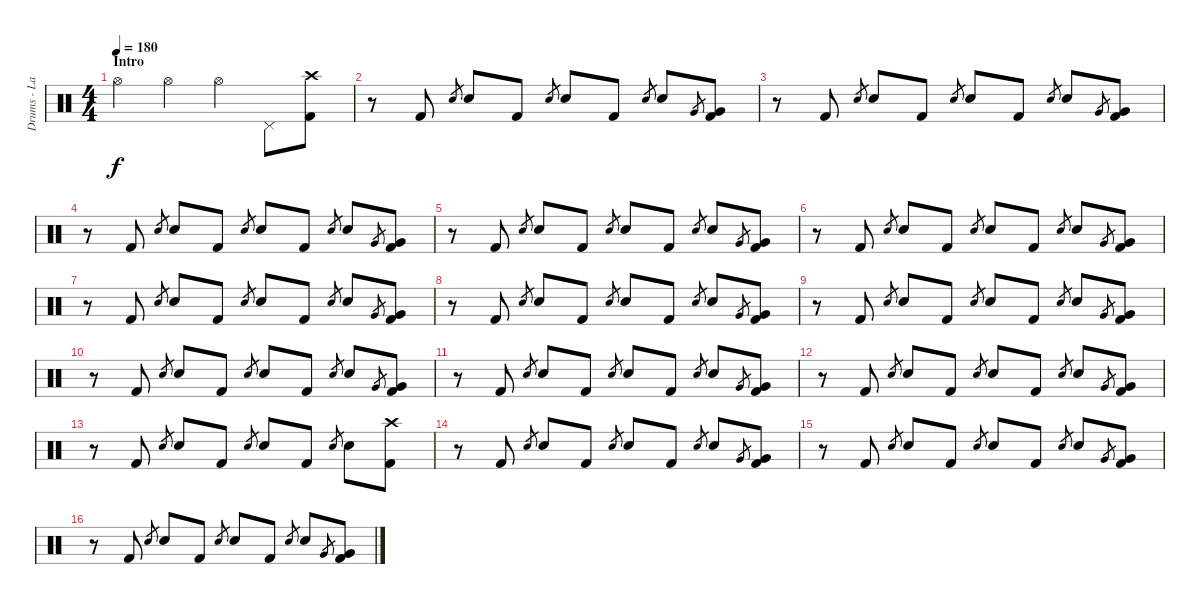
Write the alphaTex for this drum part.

\track ("Drums - Lars" "Drums - La") {instrument percussion}
\staff {score}
\articulation defaults
\ts (4 4)
\section ("" "Intro")
\tempo 180
\clef neutral
\ks c "Hi-Hat (open)".4{dy f} "Hi-Hat (open)".4 "Hi-Hat (open)".4 "Pedal Hi-Hat (hit)".8
("Crash high (hit)" "Kick (hit) 2").8 |
r.8 "Kick (hit) 2".8 "Snare (hit) 2".8{gr} "Snare (hit) 2".8 "Kick (hit) 2".8 "Snare (hit) 2".8{gr} "Snare (hit) 2".8 "Kick (hit) 2".8 "Snare (hit) 2".8{gr} "Snare (hit) 2".8 "Very Low Tom (hit)".8{gr} ("Very Low Tom (hit)" "Kick (hit) 2").8 |
r.8 "Kick (hit) 2".8 "Snare (hit) 2".8{gr} "Snare (hit) 2".8 "Kick (hit) 2".8 "Snare (hit) 2".8{gr} "Snare (hit) 2".8 "Kick (hit) 2".8 "Snare (hit) 2".8{gr} "Snare (hit) 2".8 "Very Low Tom (hit)".8{gr} ("Very Low Tom (hit)" "Kick (hit) 2").8 |
r.8 "Kick (hit) 2".8 "Snare (hit) 2".8{gr} "Snare (hit) 2".8 "Kick (hit) 2".8 "Snare (hit) 2".8{gr} "Snare (hit) 2".8 "Kick (hit) 2".8 "Snare (hit) 2".8{gr} "Snare (hit) 2".8 "Very Low Tom (hit)".8{gr} ("Very Low Tom (hit)" "Kick (hit) 2").8 |
r.8 "Kick (hit) 2".8 "Snare (hit) 2".8{gr} "Snare (hit) 2".8 "Kick (hit) 2".8 "Snare (hit) 2".8{gr} "Snare (hit) 2".8 "Kick (hit) 2".8 "Snare (hit) 2".8{gr} "Snare (hit) 2".8 "Very Low Tom (hit)".8{gr} ("Very Low Tom (hit)" "Kick (hit) 2").8 |
r.8 "Kick (hit) 2".8 "Snare (hit) 2".8{gr} "Snare (hit) 2".8 "Kick (hit) 2".8 "Snare (hit) 2".8{gr} "Snare (hit) 2".8 "Kick (hit) 2".8 "Snare (hit) 2".8{gr} "Snare (hit) 2".8 "Very Low Tom (hit)".8{gr} ("Very Low Tom (hit)" "Kick (hit) 2").8 |
r.8 "Kick (hit) 2".8 "Snare (hit) 2".8{gr} "Snare (hit) 2".8 "Kick (hit) 2".8 "Snare (hit) 2".8{gr} "Snare (hit) 2".8 "Kick (hit) 2".8 "Snare (hit) 2".8{gr} "Snare (hit) 2".8 "Very Low Tom (hit)".8{gr} ("Very Low Tom (hit)" "Kick (hit) 2").8 |
r.8 "Kick (hit) 2".8 "Snare (hit) 2".8{gr} "Snare (hit) 2".8 "Kick (hit) 2".8 "Snare (hit) 2".8{gr} "Snare (hit) 2".8 "Kick (hit) 2".8 "Snare (hit) 2".8{gr} "Snare (hit) 2".8 "Very Low Tom (hit)".8{gr} ("Very Low Tom (hit)" "Kick (hit) 2").8 |
r.8 "Kick (hit) 2".8 "Snare (hit) 2".8{gr} "Snare (hit) 2".8 "Kick (hit) 2".8 "Snare (hit) 2".8{gr} "Snare (hit) 2".8 "Kick (hit) 2".8 "Snare (hit) 2".8{gr} "Snare (hit) 2".8 "Very Low Tom (hit)".8{gr} ("Very Low Tom (hit)" "Kick (hit) 2").8 |
r.8 "Kick (hit) 2".8 "Snare (hit) 2".8{gr} "Snare (hit) 2".8 "Kick (hit) 2".8 "Snare (hit) 2".8{gr} "Snare (hit) 2".8 "Kick (hit) 2".8 "Snare (hit) 2".8{gr} "Snare (hit) 2".8 "Very Low Tom (hit)".8{gr} ("Very Low Tom (hit)" "Kick (hit) 2").8 |
r.8 "Kick (hit) 2".8 "Snare (hit) 2".8{gr} "Snare (hit) 2".8 "Kick (hit) 2".8 "Snare (hit) 2".8{gr} "Snare (hit) 2".8 "Kick (hit) 2".8 "Snare (hit) 2".8{gr} "Snare (hit) 2".8 "Very Low Tom (hit)".8{gr} ("Very Low Tom (hit)" "Kick (hit) 2").8 |
r.8 "Kick (hit) 2".8 "Snare (hit) 2".8{gr} "Snare (hit) 2".8 "Kick (hit) 2".8 "Snare (hit) 2".8{gr} "Snare (hit) 2".8 "Kick (hit) 2".8 "Snare (hit) 2".8{gr} "Snare (hit) 2".8 "Very Low Tom (hit)".8{gr} ("Very Low Tom (hit)" "Kick (hit) 2").8 |
r.8 "Kick (hit) 2".8 "Snare (hit) 2".8{gr} "Snare (hit) 2".8 "Kick (hit) 2".8 "Snare (hit) 2".8{gr} "Snare (hit) 2".8 "Kick (hit) 2".8 "Snare (hit) 2".8{gr} "Snare (hit) 2".8 ("Crash high (hit)" "Kick (hit) 2").8 |
r.8 "Kick (hit) 2".8 "Snare (hit) 2".8{gr} "Snare (hit) 2".8 "Kick (hit) 2".8 "Snare (hit) 2".8{gr} "Snare (hit) 2".8 "Kick (hit) 2".8 "Snare (hit) 2".8{gr} "Snare (hit) 2".8 "Very Low Tom (hit)".8{gr} ("Very Low Tom (hit)" "Kick (hit) 2").8 |
r.8 "Kick (hit) 2".8 "Snare (hit) 2".8{gr} "Snare (hit) 2".8 "Kick (hit) 2".8 "Snare (hit) 2".8{gr} "Snare (hit) 2".8 "Kick (hit) 2".8 "Snare (hit) 2".8{gr} "Snare (hit) 2".8 "Very Low Tom (hit)".8{gr} ("Very Low Tom (hit)" "Kick (hit) 2").8 |
r.8 "Kick (hit) 2".8 "Snare (hit) 2".8{gr} "Snare (hit) 2".8 "Kick (hit) 2".8 "Snare (hit) 2".8{gr} "Snare (hit) 2".8 "Kick (hit) 2".8 "Snare (hit) 2".8{gr} "Snare (hit) 2".8 "Very Low Tom (hit)".8{gr} ("Very Low Tom (hit)" "Kick (hit) 2").8
